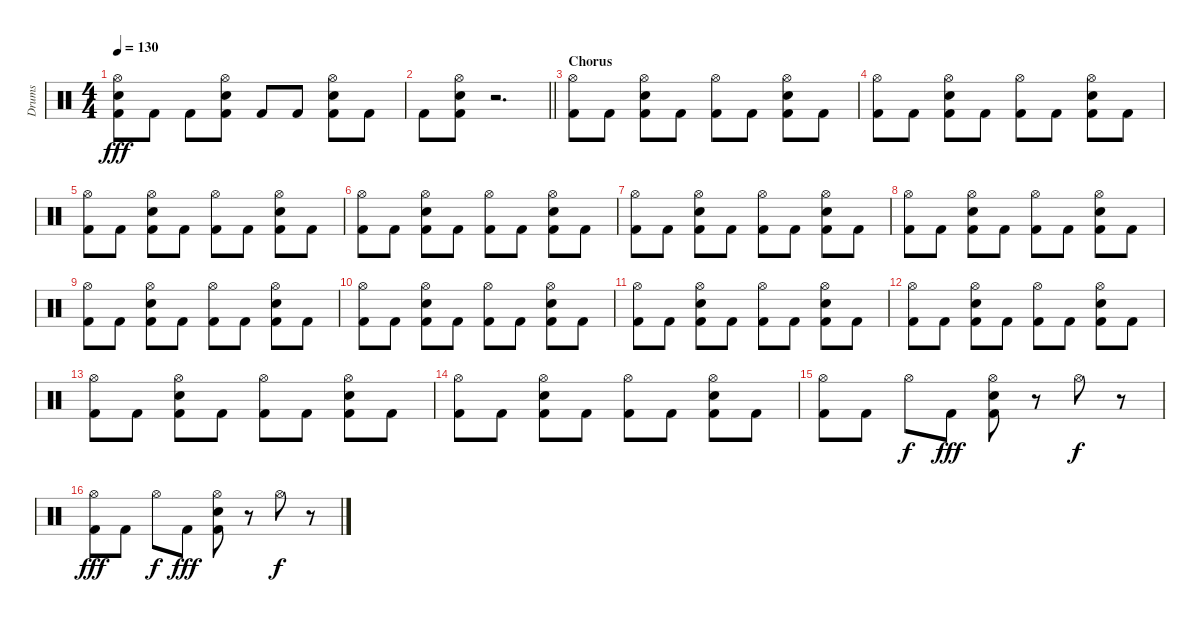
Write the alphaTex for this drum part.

\track ("Drums" "Drums") {instrument percussion}
\staff {score}
\articulation defaults
\ts (4 4)
\tempo 130
\clef neutral
\ks c
("Hi-Hat (open)" "Snare (hit) 2" "Kick (hit) 2").8{dy fff} "Kick (hit) 2".8 "Kick (hit) 2".8 ("Hi-Hat (open)" "Snare (hit) 2" "Kick (hit) 2").8 "Kick (hit) 2".8 "Kick (hit) 2".8 ("Hi-Hat (open)" "Snare (hit) 2" "Kick (hit) 2").8 "Kick (hit) 2".8 |
\barLineRight lightlight "Kick (hit) 2".8
("Hi-Hat (open)" "Snare (hit) 2" "Kick (hit) 2").8 r.2{d} |
\section ("" "Chorus")
("Hi-Hat (open)" "Kick (hit) 2").8 "Kick (hit) 2".8 ("Hi-Hat (open)" "Snare (hit) 2" "Kick (hit) 2").8 "Kick (hit) 2".8 ("Hi-Hat (open)" "Kick (hit) 2").8 "Kick (hit) 2".8 ("Hi-Hat (open)" "Snare (hit) 2" "Kick (hit) 2").8 "Kick (hit) 2".8 |
("Hi-Hat (open)" "Kick (hit) 2").8 "Kick (hit) 2".8 ("Hi-Hat (open)" "Snare (hit) 2" "Kick (hit) 2").8 "Kick (hit) 2".8 ("Hi-Hat (open)" "Kick (hit) 2").8 "Kick (hit) 2".8 ("Hi-Hat (open)" "Snare (hit) 2" "Kick (hit) 2").8 "Kick (hit) 2".8 |
("Hi-Hat (open)" "Kick (hit) 2").8 "Kick (hit) 2".8 ("Hi-Hat (open)" "Snare (hit) 2" "Kick (hit) 2").8 "Kick (hit) 2".8 ("Hi-Hat (open)" "Kick (hit) 2").8 "Kick (hit) 2".8 ("Hi-Hat (open)" "Snare (hit) 2" "Kick (hit) 2").8 "Kick (hit) 2".8 |
("Hi-Hat (open)" "Kick (hit) 2").8 "Kick (hit) 2".8 ("Hi-Hat (open)" "Snare (hit) 2" "Kick (hit) 2").8 "Kick (hit) 2".8 ("Hi-Hat (open)" "Kick (hit) 2").8 "Kick (hit) 2".8 ("Hi-Hat (open)" "Snare (hit) 2" "Kick (hit) 2").8 "Kick (hit) 2".8 |
("Hi-Hat (open)" "Kick (hit) 2").8 "Kick (hit) 2".8 ("Hi-Hat (open)" "Snare (hit) 2" "Kick (hit) 2").8 "Kick (hit) 2".8 ("Hi-Hat (open)" "Kick (hit) 2").8 "Kick (hit) 2".8 ("Hi-Hat (open)" "Snare (hit) 2" "Kick (hit) 2").8 "Kick (hit) 2".8 |
("Hi-Hat (open)" "Kick (hit) 2").8 "Kick (hit) 2".8 ("Hi-Hat (open)" "Snare (hit) 2" "Kick (hit) 2").8 "Kick (hit) 2".8 ("Hi-Hat (open)" "Kick (hit) 2").8 "Kick (hit) 2".8 ("Hi-Hat (open)" "Snare (hit) 2" "Kick (hit) 2").8 "Kick (hit) 2".8 |
("Hi-Hat (open)" "Kick (hit) 2").8 "Kick (hit) 2".8 ("Hi-Hat (open)" "Snare (hit) 2" "Kick (hit) 2").8 "Kick (hit) 2".8 ("Hi-Hat (open)" "Kick (hit) 2").8 "Kick (hit) 2".8 ("Hi-Hat (open)" "Snare (hit) 2" "Kick (hit) 2").8 "Kick (hit) 2".8 |
("Hi-Hat (open)" "Kick (hit) 2").8 "Kick (hit) 2".8 ("Hi-Hat (open)" "Snare (hit) 2" "Kick (hit) 2").8 "Kick (hit) 2".8 ("Hi-Hat (open)" "Kick (hit) 2").8 "Kick (hit) 2".8 ("Hi-Hat (open)" "Snare (hit) 2" "Kick (hit) 2").8 "Kick (hit) 2".8 |
("Hi-Hat (open)" "Kick (hit) 2").8 "Kick (hit) 2".8 ("Hi-Hat (open)" "Snare (hit) 2" "Kick (hit) 2").8 "Kick (hit) 2".8 ("Hi-Hat (open)" "Kick (hit) 2").8 "Kick (hit) 2".8 ("Hi-Hat (open)" "Snare (hit) 2" "Kick (hit) 2").8 "Kick (hit) 2".8 |
("Hi-Hat (open)" "Kick (hit) 2").8 "Kick (hit) 2".8 ("Hi-Hat (open)" "Snare (hit) 2" "Kick (hit) 2").8 "Kick (hit) 2".8 ("Hi-Hat (open)" "Kick (hit) 2").8 "Kick (hit) 2".8 ("Hi-Hat (open)" "Snare (hit) 2" "Kick (hit) 2").8 "Kick (hit) 2".8 |
("Hi-Hat (open)" "Kick (hit) 2").8 "Kick (hit) 2".8 ("Hi-Hat (open)" "Snare (hit) 2" "Kick (hit) 2").8 "Kick (hit) 2".8 ("Hi-Hat (open)" "Kick (hit) 2").8 "Kick (hit) 2".8 ("Hi-Hat (open)" "Snare (hit) 2" "Kick (hit) 2").8 "Kick (hit) 2".8 |
("Hi-Hat (open)" "Kick (hit) 2").8 "Kick (hit) 2".8 ("Hi-Hat (open)" "Snare (hit) 2" "Kick (hit) 2").8 "Kick (hit) 2".8 ("Hi-Hat (open)" "Kick (hit) 2").8 "Kick (hit) 2".8 ("Hi-Hat (open)" "Snare (hit) 2" "Kick (hit) 2").8 "Kick (hit) 2".8 |
("Hi-Hat (open)" "Kick (hit) 2").8 "Kick (hit) 2".8 "Hi-Hat (open)".8{dy f} "Kick (hit) 2".8{dy fff} ("Hi-Hat (open)" "Snare (hit) 2" "Kick (hit) 2").8 r.8 "Hi-Hat (open)".8{dy f} r.8 |
("Hi-Hat (open)" "Kick (hit) 2").8{dy fff} "Kick (hit) 2".8 "Hi-Hat (open)".8{dy f} "Kick (hit) 2".8{dy fff} ("Hi-Hat (open)" "Snare (hit) 2" "Kick (hit) 2").8 r.8 "Hi-Hat (open)".8{dy f} r.8
